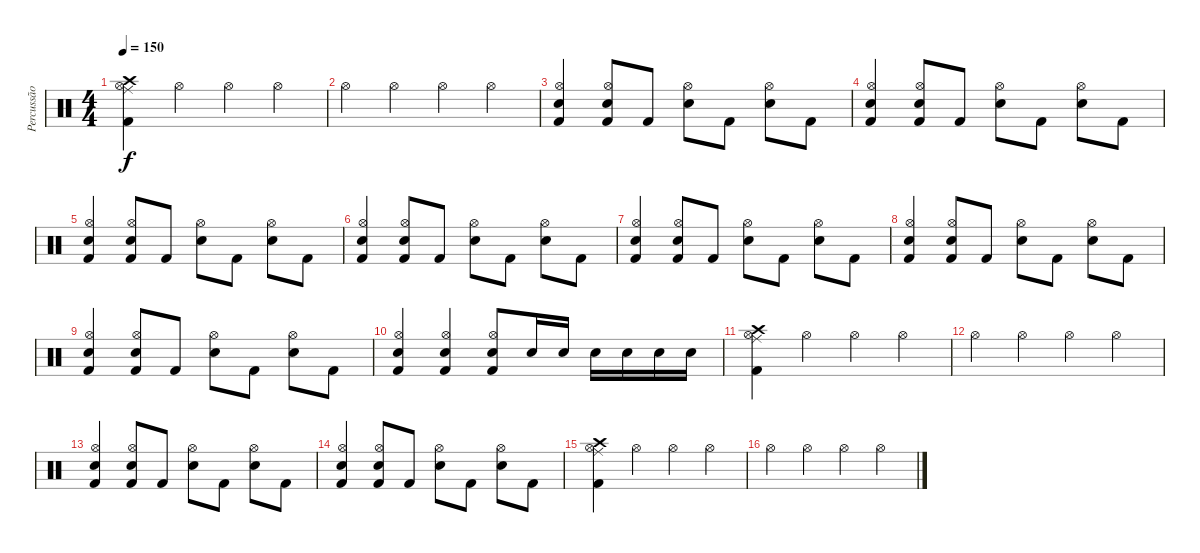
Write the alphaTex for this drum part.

\track ("Percussão" "Percussão") {instrument percussion}
\staff {score}
\articulation defaults
\ts (4 4)
\tempo 150
\clef neutral
\ks c
("Kick (hit) 2" "Crash high (hit)" "Ride (middle)" "Hi-Hat (open)").4{dy f} "Hi-Hat (open)".4 "Hi-Hat (open)".4 "Hi-Hat (open)".4 |
"Hi-Hat (open)".4 "Hi-Hat (open)".4 "Hi-Hat (open)".4 "Hi-Hat (open)".4 |
("Kick (hit) 2" "Hi-Hat (open)" "Electric Snare (hit)").4 ("Kick (hit) 2" "Hi-Hat (open)" "Electric Snare (hit)").8 "Kick (hit) 2".8 ("Hi-Hat (open)" "Electric Snare (hit)").8 "Kick (hit) 2".8 ("Hi-Hat (open)" "Electric Snare (hit)").8 "Kick (hit) 2".8 |
("Kick (hit) 2" "Hi-Hat (open)" "Electric Snare (hit)").4 ("Kick (hit) 2" "Hi-Hat (open)" "Electric Snare (hit)").8 "Kick (hit) 2".8 ("Hi-Hat (open)" "Electric Snare (hit)").8 "Kick (hit) 2".8 ("Hi-Hat (open)" "Electric Snare (hit)").8 "Kick (hit) 2".8 |
("Kick (hit) 2" "Hi-Hat (open)" "Electric Snare (hit)").4 ("Kick (hit) 2" "Hi-Hat (open)" "Electric Snare (hit)").8 "Kick (hit) 2".8 ("Hi-Hat (open)" "Electric Snare (hit)").8 "Kick (hit) 2".8 ("Hi-Hat (open)" "Electric Snare (hit)").8 "Kick (hit) 2".8 |
("Kick (hit) 2" "Hi-Hat (open)" "Electric Snare (hit)").4 ("Kick (hit) 2" "Hi-Hat (open)" "Electric Snare (hit)").8 "Kick (hit) 2".8 ("Hi-Hat (open)" "Electric Snare (hit)").8 "Kick (hit) 2".8 ("Hi-Hat (open)" "Electric Snare (hit)").8 "Kick (hit) 2".8 |
("Kick (hit) 2" "Hi-Hat (open)" "Electric Snare (hit)").4 ("Kick (hit) 2" "Hi-Hat (open)" "Electric Snare (hit)").8 "Kick (hit) 2".8 ("Hi-Hat (open)" "Electric Snare (hit)").8 "Kick (hit) 2".8 ("Hi-Hat (open)" "Electric Snare (hit)").8 "Kick (hit) 2".8 |
("Kick (hit) 2" "Hi-Hat (open)" "Electric Snare (hit)").4 ("Kick (hit) 2" "Hi-Hat (open)" "Electric Snare (hit)").8 "Kick (hit) 2".8 ("Hi-Hat (open)" "Electric Snare (hit)").8 "Kick (hit) 2".8 ("Hi-Hat (open)" "Electric Snare (hit)").8 "Kick (hit) 2".8 |
("Kick (hit) 2" "Hi-Hat (open)" "Electric Snare (hit)").4 ("Kick (hit) 2" "Hi-Hat (open)" "Electric Snare (hit)").8 "Kick (hit) 2".8 ("Hi-Hat (open)" "Electric Snare (hit)").8 "Kick (hit) 2".8 ("Hi-Hat (open)" "Electric Snare (hit)").8 "Kick (hit) 2".8 |
("Kick (hit) 2" "Hi-Hat (open)" "Electric Snare (hit)").4 ("Kick (hit) 2" "Hi-Hat (open)" "Electric Snare (hit)").4 ("Kick (hit) 2" "Hi-Hat (open)" "Electric Snare (hit)").8 "Electric Snare (hit)".16 "Electric Snare (hit)".16 "Electric Snare (hit)".16 "Electric Snare (hit)".16 "Electric Snare (hit)".16 "Electric Snare (hit)".16 |
("Kick (hit) 2" "Crash high (hit)" "Ride (middle)" "Hi-Hat (open)").4 "Hi-Hat (open)".4 "Hi-Hat (open)".4 "Hi-Hat (open)".4 |
"Hi-Hat (open)".4 "Hi-Hat (open)".4 "Hi-Hat (open)".4 "Hi-Hat (open)".4 |
("Kick (hit) 2" "Hi-Hat (open)" "Electric Snare (hit)").4 ("Kick (hit) 2" "Hi-Hat (open)" "Electric Snare (hit)").8 "Kick (hit) 2".8 ("Hi-Hat (open)" "Electric Snare (hit)").8 "Kick (hit) 2".8 ("Hi-Hat (open)" "Electric Snare (hit)").8 "Kick (hit) 2".8 |
("Kick (hit) 2" "Hi-Hat (open)" "Electric Snare (hit)").4 ("Kick (hit) 2" "Hi-Hat (open)" "Electric Snare (hit)").8 "Kick (hit) 2".8 ("Hi-Hat (open)" "Electric Snare (hit)").8 "Kick (hit) 2".8 ("Hi-Hat (open)" "Electric Snare (hit)").8 "Kick (hit) 2".8 |
("Kick (hit) 2" "Crash high (hit)" "Ride (middle)" "Hi-Hat (open)").4 "Hi-Hat (open)".4 "Hi-Hat (open)".4 "Hi-Hat (open)".4 |
"Hi-Hat (open)".4 "Hi-Hat (open)".4 "Hi-Hat (open)".4 "Hi-Hat (open)".4
